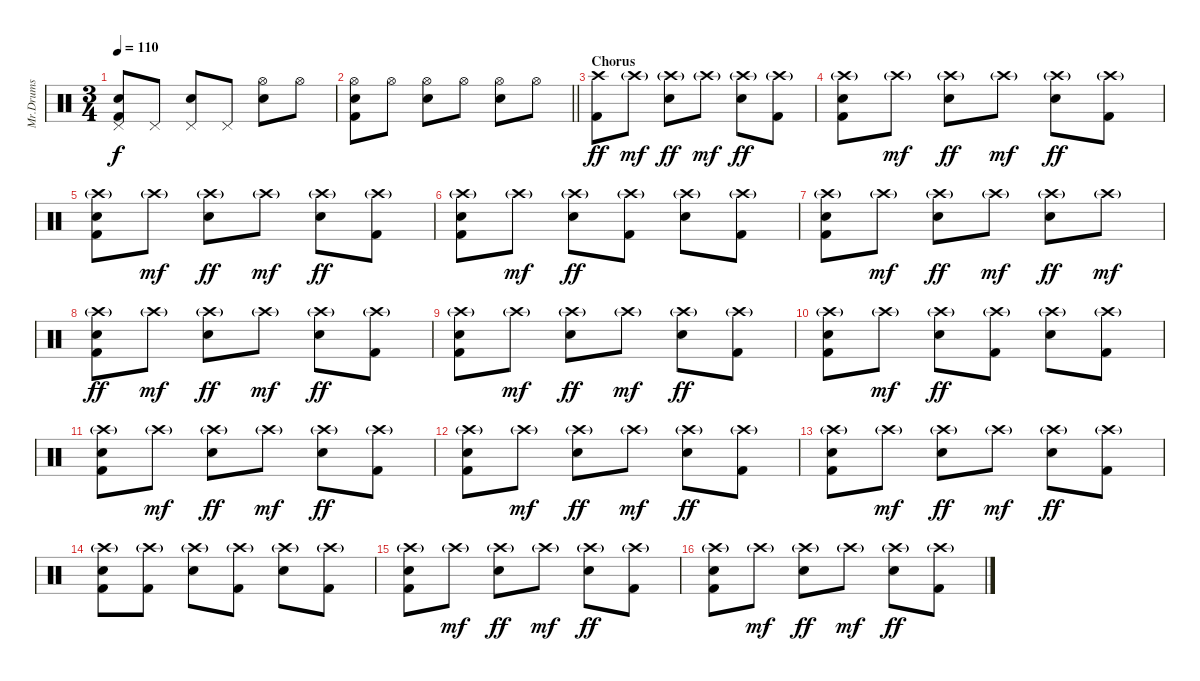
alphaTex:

\track ("Mr.Drums" "Mr.Drums") {instrument percussion}
\staff {score}
\articulation defaults
\ts (3 4)
\tempo 110
\clef neutral
\ks c
("Pedal Hi-Hat (hit)" "Electric Snare (hit)" "Kick (hit) 2").8{dy f} "Pedal Hi-Hat (hit)".8 ("Pedal Hi-Hat (hit)" "Electric Snare (hit)").8 "Pedal Hi-Hat (hit)".8 ("Hi-Hat (open)" "Electric Snare (hit)").8 "Hi-Hat (open)".8 |
\barLineRight lightlight
("Hi-Hat (open)" "Electric Snare (hit)" "Kick (hit) 2").8 "Hi-Hat (open)".8 ("Hi-Hat (open)" "Electric Snare (hit)").8 "Hi-Hat (open)".8 ("Hi-Hat (open)" "Electric Snare (hit)").8 "Hi-Hat (open)".8 |
\section ("" "Chorus")
("Crash high (hit)" "Kick (hit) 2").8{dy ff} "Crash high (hit)"{g}.8{dy mf} ("Crash high (hit)"{g} "Electric Snare (hit)").8{dy ff} "Crash high (hit)"{g}.8{dy mf} ("Crash high (hit)"{g} "Electric Snare (hit)").8{dy ff} ("Crash high (hit)"{g} "Kick (hit) 2").8 |
("Crash high (hit)"{g} "Electric Snare (hit)" "Kick (hit) 2").8 "Crash high (hit)"{g}.8{dy mf} ("Crash high (hit)"{g} "Electric Snare (hit)").8{dy ff} "Crash high (hit)"{g}.8{dy mf} ("Crash high (hit)"{g} "Electric Snare (hit)").8{dy ff} ("Crash high (hit)"{g} "Kick (hit) 2").8 |
("Crash high (hit)"{g} "Electric Snare (hit)" "Kick (hit) 2").8 "Crash high (hit)"{g}.8{dy mf} ("Crash high (hit)"{g} "Electric Snare (hit)").8{dy ff} "Crash high (hit)"{g}.8{dy mf} ("Crash high (hit)"{g} "Electric Snare (hit)").8{dy ff} ("Crash high (hit)"{g} "Kick (hit) 2").8 |
("Crash high (hit)"{g} "Electric Snare (hit)" "Kick (hit) 2").8 "Crash high (hit)"{g}.8{dy mf} ("Crash high (hit)"{g} "Electric Snare (hit)").8{dy ff} ("Crash high (hit)"{g} "Kick (hit) 2").8 ("Crash high (hit)"{g} "Electric Snare (hit)").8 ("Crash high (hit)"{g} "Kick (hit) 2").8 |
("Crash high (hit)"{g} "Electric Snare (hit)" "Kick (hit) 2").8 "Crash high (hit)"{g}.8{dy mf} ("Crash high (hit)"{g} "Electric Snare (hit)").8{dy ff} "Crash high (hit)"{g}.8{dy mf} ("Crash high (hit)"{g} "Electric Snare (hit)").8{dy ff} "Crash high (hit)"{g}.8{dy mf} |
("Crash high (hit)"{g} "Electric Snare (hit)" "Kick (hit) 2").8{dy ff} "Crash high (hit)"{g}.8{dy mf} ("Crash high (hit)"{g} "Electric Snare (hit)").8{dy ff} "Crash high (hit)"{g}.8{dy mf} ("Crash high (hit)"{g} "Electric Snare (hit)").8{dy ff} ("Crash high (hit)"{g} "Kick (hit) 2").8 |
("Crash high (hit)"{g} "Electric Snare (hit)" "Kick (hit) 2").8 "Crash high (hit)"{g}.8{dy mf} ("Crash high (hit)"{g} "Electric Snare (hit)").8{dy ff} "Crash high (hit)"{g}.8{dy mf} ("Crash high (hit)"{g} "Electric Snare (hit)").8{dy ff} ("Crash high (hit)"{g} "Kick (hit) 2").8 |
("Crash high (hit)"{g} "Electric Snare (hit)" "Kick (hit) 2").8 "Crash high (hit)"{g}.8{dy mf} ("Crash high (hit)"{g} "Electric Snare (hit)").8{dy ff} ("Crash high (hit)"{g} "Kick (hit) 2").8 ("Crash high (hit)"{g} "Electric Snare (hit)").8 ("Crash high (hit)"{g} "Kick (hit) 2").8 |
("Crash high (hit)"{g} "Electric Snare (hit)" "Kick (hit) 2").8 "Crash high (hit)"{g}.8{dy mf} ("Crash high (hit)"{g} "Electric Snare (hit)").8{dy ff} "Crash high (hit)"{g}.8{dy mf} ("Crash high (hit)"{g} "Electric Snare (hit)").8{dy ff} ("Crash high (hit)"{g} "Kick (hit) 2").8 |
("Crash high (hit)"{g} "Electric Snare (hit)" "Kick (hit) 2").8 "Crash high (hit)"{g}.8{dy mf} ("Crash high (hit)"{g} "Electric Snare (hit)").8{dy ff} "Crash high (hit)"{g}.8{dy mf} ("Crash high (hit)"{g} "Electric Snare (hit)").8{dy ff} ("Crash high (hit)"{g} "Kick (hit) 2").8 |
("Crash high (hit)"{g} "Electric Snare (hit)" "Kick (hit) 2").8 "Crash high (hit)"{g}.8{dy mf} ("Crash high (hit)"{g} "Electric Snare (hit)").8{dy ff} "Crash high (hit)"{g}.8{dy mf} ("Crash high (hit)"{g} "Electric Snare (hit)").8{dy ff} ("Crash high (hit)"{g} "Kick (hit) 2").8 |
("Crash high (hit)"{g} "Electric Snare (hit)" "Kick (hit) 2").8 ("Crash high (hit)"{g} "Kick (hit) 2").8 ("Crash high (hit)"{g} "Electric Snare (hit)").8 ("Crash high (hit)"{g} "Kick (hit) 2").8 ("Crash high (hit)"{g} "Electric Snare (hit)").8 ("Crash high (hit)"{g} "Kick (hit) 2").8 |
("Crash high (hit)"{g} "Electric Snare (hit)" "Kick (hit) 2").8 "Crash high (hit)"{g}.8{dy mf} ("Crash high (hit)"{g} "Electric Snare (hit)").8{dy ff} "Crash high (hit)"{g}.8{dy mf} ("Crash high (hit)"{g} "Electric Snare (hit)").8{dy ff} ("Crash high (hit)"{g} "Kick (hit) 2").8 |
("Crash high (hit)"{g} "Electric Snare (hit)" "Kick (hit) 2").8 "Crash high (hit)"{g}.8{dy mf} ("Crash high (hit)"{g} "Electric Snare (hit)").8{dy ff} "Crash high (hit)"{g}.8{dy mf} ("Crash high (hit)"{g} "Electric Snare (hit)").8{dy ff} ("Crash high (hit)"{g} "Kick (hit) 2").8
